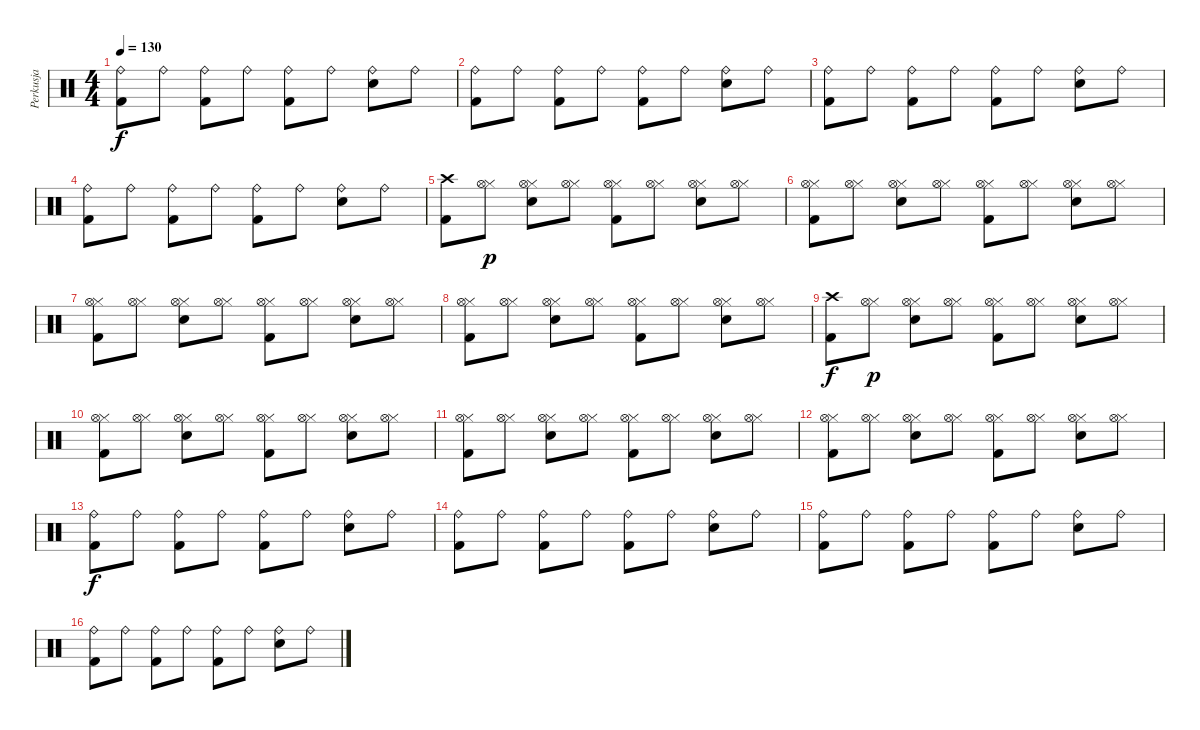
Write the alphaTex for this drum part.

\track ("Perkusja" "Perkusja") {instrument percussion}
\staff {score}
\articulation defaults
\ts (4 4)
\tempo 130
\clef neutral
\ks c
("Kick (hit) 2" "Ride (bell)").8{dy f} "Ride (bell)".8 ("Kick (hit) 2" "Ride (bell)").8 "Ride (bell)".8 ("Kick (hit) 2" "Ride (bell)").8 "Ride (bell)".8 ("Electric Snare (hit)" "Ride (bell)").8 "Ride (bell)".8 |
("Kick (hit) 2" "Ride (bell)").8 "Ride (bell)".8 ("Kick (hit) 2" "Ride (bell)").8 "Ride (bell)".8 ("Kick (hit) 2" "Ride (bell)").8 "Ride (bell)".8 ("Electric Snare (hit)" "Ride (bell)").8 "Ride (bell)".8 |
("Kick (hit) 2" "Ride (bell)").8 "Ride (bell)".8 ("Kick (hit) 2" "Ride (bell)").8 "Ride (bell)".8 ("Kick (hit) 2" "Ride (bell)").8 "Ride (bell)".8 ("Electric Snare (hit)" "Ride (bell)").8 "Ride (bell)".8 |
("Kick (hit) 2" "Ride (bell)").8 "Ride (bell)".8 ("Kick (hit) 2" "Ride (bell)").8 "Ride (bell)".8 ("Kick (hit) 2" "Ride (bell)").8 "Ride (bell)".8 ("Electric Snare (hit)" "Ride (bell)").8 "Ride (bell)".8 |
("Kick (hit) 2" "Crash high (hit)").8 ("Hi-Hat (closed)" "Hi-Hat (open)").8{dy p} ("Electric Snare (hit)" "Hi-Hat (closed)" "Hi-Hat (open)").8 ("Hi-Hat (closed)" "Hi-Hat (open)").8 ("Kick (hit) 2" "Hi-Hat (closed)" "Hi-Hat (open)").8 ("Hi-Hat (closed)" "Hi-Hat (open)").8 ("Electric Snare (hit)" "Hi-Hat (closed)" "Hi-Hat (open)").8 ("Hi-Hat (closed)" "Hi-Hat (open)").8 |
("Kick (hit) 2" "Hi-Hat (closed)" "Hi-Hat (open)").8 ("Hi-Hat (closed)" "Hi-Hat (open)").8 ("Electric Snare (hit)" "Hi-Hat (closed)" "Hi-Hat (open)").8 ("Hi-Hat (closed)" "Hi-Hat (open)").8 ("Kick (hit) 2" "Hi-Hat (closed)" "Hi-Hat (open)").8 ("Hi-Hat (closed)" "Hi-Hat (open)").8 ("Electric Snare (hit)" "Hi-Hat (closed)" "Hi-Hat (open)").8 ("Hi-Hat (closed)" "Hi-Hat (open)").8 |
("Kick (hit) 2" "Hi-Hat (closed)" "Hi-Hat (open)").8 ("Hi-Hat (closed)" "Hi-Hat (open)").8 ("Electric Snare (hit)" "Hi-Hat (closed)" "Hi-Hat (open)").8 ("Hi-Hat (closed)" "Hi-Hat (open)").8 ("Kick (hit) 2" "Hi-Hat (closed)" "Hi-Hat (open)").8 ("Hi-Hat (closed)" "Hi-Hat (open)").8 ("Electric Snare (hit)" "Hi-Hat (closed)" "Hi-Hat (open)").8 ("Hi-Hat (closed)" "Hi-Hat (open)").8 |
("Kick (hit) 2" "Hi-Hat (closed)" "Hi-Hat (open)").8 ("Hi-Hat (closed)" "Hi-Hat (open)").8 ("Electric Snare (hit)" "Hi-Hat (closed)" "Hi-Hat (open)").8 ("Hi-Hat (closed)" "Hi-Hat (open)").8 ("Kick (hit) 2" "Hi-Hat (closed)" "Hi-Hat (open)").8 ("Hi-Hat (closed)" "Hi-Hat (open)").8 ("Electric Snare (hit)" "Hi-Hat (closed)" "Hi-Hat (open)").8 ("Hi-Hat (closed)" "Hi-Hat (open)").8 |
("Kick (hit) 2" "Crash high (hit)").8{dy f} ("Hi-Hat (closed)" "Hi-Hat (open)").8{dy p} ("Electric Snare (hit)" "Hi-Hat (closed)" "Hi-Hat (open)").8 ("Hi-Hat (closed)" "Hi-Hat (open)").8 ("Kick (hit) 2" "Hi-Hat (closed)" "Hi-Hat (open)").8 ("Hi-Hat (closed)" "Hi-Hat (open)").8 ("Electric Snare (hit)" "Hi-Hat (closed)" "Hi-Hat (open)").8 ("Hi-Hat (closed)" "Hi-Hat (open)").8 |
("Kick (hit) 2" "Hi-Hat (closed)" "Hi-Hat (open)").8 ("Hi-Hat (closed)" "Hi-Hat (open)").8 ("Electric Snare (hit)" "Hi-Hat (closed)" "Hi-Hat (open)").8 ("Hi-Hat (closed)" "Hi-Hat (open)").8 ("Kick (hit) 2" "Hi-Hat (closed)" "Hi-Hat (open)").8 ("Hi-Hat (closed)" "Hi-Hat (open)").8 ("Electric Snare (hit)" "Hi-Hat (closed)" "Hi-Hat (open)").8 ("Hi-Hat (closed)" "Hi-Hat (open)").8 |
("Kick (hit) 2" "Hi-Hat (closed)" "Hi-Hat (open)").8 ("Hi-Hat (closed)" "Hi-Hat (open)").8 ("Electric Snare (hit)" "Hi-Hat (closed)" "Hi-Hat (open)").8 ("Hi-Hat (closed)" "Hi-Hat (open)").8 ("Kick (hit) 2" "Hi-Hat (closed)" "Hi-Hat (open)").8 ("Hi-Hat (closed)" "Hi-Hat (open)").8 ("Electric Snare (hit)" "Hi-Hat (closed)" "Hi-Hat (open)").8 ("Hi-Hat (closed)" "Hi-Hat (open)").8 |
("Kick (hit) 2" "Hi-Hat (closed)" "Hi-Hat (open)").8 ("Hi-Hat (closed)" "Hi-Hat (open)").8 ("Electric Snare (hit)" "Hi-Hat (closed)" "Hi-Hat (open)").8 ("Hi-Hat (closed)" "Hi-Hat (open)").8 ("Kick (hit) 2" "Hi-Hat (closed)" "Hi-Hat (open)").8 ("Hi-Hat (closed)" "Hi-Hat (open)").8 ("Electric Snare (hit)" "Hi-Hat (closed)" "Hi-Hat (open)").8 ("Hi-Hat (closed)" "Hi-Hat (open)").8 |
("Kick (hit) 2" "Ride (bell)").8{dy f} "Ride (bell)".8 ("Kick (hit) 2" "Ride (bell)").8 "Ride (bell)".8 ("Kick (hit) 2" "Ride (bell)").8 "Ride (bell)".8 ("Electric Snare (hit)" "Ride (bell)").8 "Ride (bell)".8 |
("Kick (hit) 2" "Ride (bell)").8 "Ride (bell)".8 ("Kick (hit) 2" "Ride (bell)").8 "Ride (bell)".8 ("Kick (hit) 2" "Ride (bell)").8 "Ride (bell)".8 ("Electric Snare (hit)" "Ride (bell)").8 "Ride (bell)".8 |
("Kick (hit) 2" "Ride (bell)").8 "Ride (bell)".8 ("Kick (hit) 2" "Ride (bell)").8 "Ride (bell)".8 ("Kick (hit) 2" "Ride (bell)").8 "Ride (bell)".8 ("Electric Snare (hit)" "Ride (bell)").8 "Ride (bell)".8 |
("Kick (hit) 2" "Ride (bell)").8 "Ride (bell)".8 ("Kick (hit) 2" "Ride (bell)").8 "Ride (bell)".8 ("Kick (hit) 2" "Ride (bell)").8 "Ride (bell)".8 ("Electric Snare (hit)" "Ride (bell)").8 "Ride (bell)".8
